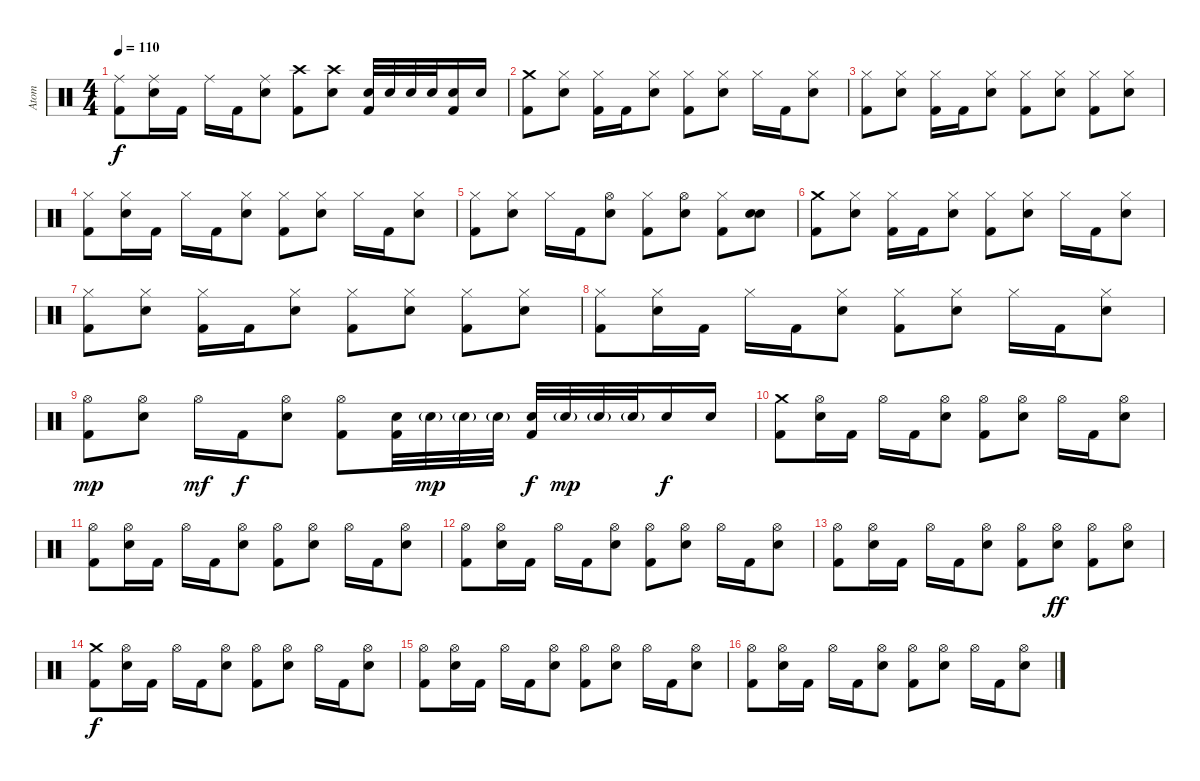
\track ("Atom" "Atom") {instrument percussion}
\staff {score}
\articulation defaults
\ts (4 4)
\tempo 110
\clef neutral
\ks c
("Ride (middle)" "Kick (hit) 2").8{dy f} ("Ride (middle)" "Electric Snare (hit)").16 "Kick (hit) 2".16 "Ride (middle)".16 "Kick (hit) 2".16 ("Ride (middle)" "Electric Snare (hit)").8 ("Crash high (hit)" "Kick (hit) 2").8 ("Crash high (hit)" "Electric Snare (hit)").8 ("Electric Snare (hit)" "Kick (hit) 2").32 "Electric Snare (hit)".32 "Electric Snare (hit)".32 "Electric Snare (hit)".32 ("Electric Snare (hit)" "Kick (hit) 2").16 "Electric Snare (hit)".16 |
("Crash medium (hit)" "Kick (hit) 2").8 ("Hi-Hat (closed)" "Electric Snare (hit)").8 ("Hi-Hat (closed)" "Kick (hit) 2").16 "Kick (hit) 2".16 ("Hi-Hat (closed)" "Electric Snare (hit)").8 ("Hi-Hat (closed)" "Kick (hit) 2").8 ("Hi-Hat (closed)" "Electric Snare (hit)").8 "Hi-Hat (closed)".16 "Kick (hit) 2".16 ("Hi-Hat (closed)" "Electric Snare (hit)").8 |
("Hi-Hat (closed)" "Kick (hit) 2").8 ("Hi-Hat (closed)" "Electric Snare (hit)").8 ("Hi-Hat (closed)" "Kick (hit) 2").16 "Kick (hit) 2".16 ("Hi-Hat (closed)" "Electric Snare (hit)").8 ("Hi-Hat (closed)" "Kick (hit) 2").8 ("Hi-Hat (closed)" "Electric Snare (hit)").8 ("Hi-Hat (closed)" "Kick (hit) 2").8 ("Hi-Hat (closed)" "Electric Snare (hit)").8 |
("Hi-Hat (closed)" "Kick (hit) 2").8 ("Hi-Hat (closed)" "Electric Snare (hit)").16 "Kick (hit) 2".16 "Hi-Hat (closed)".16 "Kick (hit) 2".16 ("Hi-Hat (closed)" "Electric Snare (hit)").8 ("Hi-Hat (closed)" "Kick (hit) 2").8 ("Hi-Hat (closed)" "Electric Snare (hit)").8 "Hi-Hat (closed)".16 "Kick (hit) 2".16 ("Hi-Hat (closed)" "Electric Snare (hit)").8 |
("Hi-Hat (closed)" "Kick (hit) 2").8 ("Hi-Hat (closed)" "Electric Snare (hit)").8 "Hi-Hat (closed)".16 "Kick (hit) 2".16 ("Hi-Hat (open)" "Electric Snare (hit)").8 ("Hi-Hat (closed)" "Kick (hit) 2").8 ("Hi-Hat (open)" "Electric Snare (hit)").8 ("Hi-Hat (closed)" "Kick (hit) 2").8 ("Electric Snare (hit)" "Electric Snare (hit)").8{bu 120} |
("Crash medium (hit)" "Kick (hit) 2").8 ("Hi-Hat (closed)" "Electric Snare (hit)").8 ("Hi-Hat (closed)" "Kick (hit) 2").16 "Kick (hit) 2".16 ("Hi-Hat (closed)" "Electric Snare (hit)").8 ("Hi-Hat (closed)" "Kick (hit) 2").8 ("Hi-Hat (closed)" "Electric Snare (hit)").8 "Hi-Hat (closed)".16 "Kick (hit) 2".16 ("Hi-Hat (closed)" "Electric Snare (hit)").8 |
("Hi-Hat (closed)" "Kick (hit) 2").8 ("Hi-Hat (closed)" "Electric Snare (hit)").8 ("Hi-Hat (closed)" "Kick (hit) 2").16 "Kick (hit) 2".16 ("Hi-Hat (closed)" "Electric Snare (hit)").8 ("Hi-Hat (closed)" "Kick (hit) 2").8 ("Hi-Hat (closed)" "Electric Snare (hit)").8 ("Hi-Hat (closed)" "Kick (hit) 2").8 ("Hi-Hat (closed)" "Electric Snare (hit)").8 |
("Hi-Hat (closed)" "Kick (hit) 2").8 ("Hi-Hat (closed)" "Electric Snare (hit)").16 "Kick (hit) 2".16 "Hi-Hat (closed)".16 "Kick (hit) 2".16 ("Hi-Hat (closed)" "Electric Snare (hit)").8 ("Hi-Hat (closed)" "Kick (hit) 2").8 ("Hi-Hat (closed)" "Electric Snare (hit)").8 "Hi-Hat (closed)".16 "Kick (hit) 2".16 ("Hi-Hat (closed)" "Electric Snare (hit)").8 |
("Hi-Hat (open)" "Kick (hit) 2").8{dy mp} ("Hi-Hat (open)" "Electric Snare (hit)").8 "Hi-Hat (open)".16{dy mf} "Kick (hit) 2".16{dy f} ("Hi-Hat (open)" "Electric Snare (hit)").8 ("Hi-Hat (open)" "Kick (hit) 2").8 ("Electric Snare (hit)" "Kick (hit) 2").32 "Electric Snare (hit)"{g}.32{dy mp} "Electric Snare (hit)"{g}.32 "Electric Snare (hit)"{g}.32 ("Electric Snare (hit)" "Kick (hit) 2").32{dy f} "Electric Snare (hit)"{g}.32{dy mp} "Electric Snare (hit)"{g}.32 "Electric Snare (hit)"{g}.32 "Electric Snare (hit)".16{dy f} "Electric Snare (hit)".16 |
("Crash medium (hit)" "Kick (hit) 2").8 ("Hi-Hat (open)" "Electric Snare (hit)").16 "Kick (hit) 2".16 "Hi-Hat (open)".16 "Kick (hit) 2".16 ("Hi-Hat (open)" "Electric Snare (hit)").8 ("Hi-Hat (open)" "Kick (hit) 2").8 ("Hi-Hat (open)" "Electric Snare (hit)").8 "Hi-Hat (open)".16 "Kick (hit) 2".16 ("Hi-Hat (open)" "Electric Snare (hit)").8 |
("Hi-Hat (open)" "Kick (hit) 2").8 ("Hi-Hat (open)" "Electric Snare (hit)").16 "Kick (hit) 2".16 "Hi-Hat (open)".16 "Kick (hit) 2".16 ("Hi-Hat (open)" "Electric Snare (hit)").8 ("Hi-Hat (open)" "Kick (hit) 2").8 ("Hi-Hat (open)" "Electric Snare (hit)").8 "Hi-Hat (open)".16 "Kick (hit) 2".16 ("Hi-Hat (open)" "Electric Snare (hit)").8 |
("Hi-Hat (open)" "Kick (hit) 2").8 ("Hi-Hat (open)" "Electric Snare (hit)").16 "Kick (hit) 2".16 "Hi-Hat (open)".16 "Kick (hit) 2".16 ("Hi-Hat (open)" "Electric Snare (hit)").8 ("Hi-Hat (open)" "Kick (hit) 2").8 ("Hi-Hat (open)" "Electric Snare (hit)").8 "Hi-Hat (open)".16 "Kick (hit) 2".16 ("Hi-Hat (open)" "Electric Snare (hit)").8 |
("Hi-Hat (open)" "Kick (hit) 2").8 ("Hi-Hat (open)" "Electric Snare (hit)").16 "Kick (hit) 2".16 "Hi-Hat (open)".16 "Kick (hit) 2".16 ("Hi-Hat (open)" "Electric Snare (hit)").8 ("Hi-Hat (open)" "Kick (hit) 2").8 ("Hi-Hat (open)" "Electric Snare (hit)").8{dy ff} ("Hi-Hat (open)" "Kick (hit) 2").8 ("Hi-Hat (open)" "Electric Snare (hit)").8 |
("Crash medium (hit)" "Kick (hit) 2").8{dy f} ("Hi-Hat (open)" "Electric Snare (hit)").16 "Kick (hit) 2".16 "Hi-Hat (open)".16 "Kick (hit) 2".16 ("Hi-Hat (open)" "Electric Snare (hit)").8 ("Hi-Hat (open)" "Kick (hit) 2").8 ("Hi-Hat (open)" "Electric Snare (hit)").8 "Hi-Hat (open)".16 "Kick (hit) 2".16 ("Hi-Hat (open)" "Electric Snare (hit)").8 |
("Hi-Hat (open)" "Kick (hit) 2").8 ("Hi-Hat (open)" "Electric Snare (hit)").16 "Kick (hit) 2".16 "Hi-Hat (open)".16 "Kick (hit) 2".16 ("Hi-Hat (open)" "Electric Snare (hit)").8 ("Hi-Hat (open)" "Kick (hit) 2").8 ("Hi-Hat (open)" "Electric Snare (hit)").8 "Hi-Hat (open)".16 "Kick (hit) 2".16 ("Hi-Hat (open)" "Electric Snare (hit)").8 |
("Hi-Hat (open)" "Kick (hit) 2").8 ("Hi-Hat (open)" "Electric Snare (hit)").16 "Kick (hit) 2".16 "Hi-Hat (open)".16 "Kick (hit) 2".16 ("Hi-Hat (open)" "Electric Snare (hit)").8 ("Hi-Hat (open)" "Kick (hit) 2").8 ("Hi-Hat (open)" "Electric Snare (hit)").8 "Hi-Hat (open)".16 "Kick (hit) 2".16 ("Hi-Hat (open)" "Electric Snare (hit)").8
